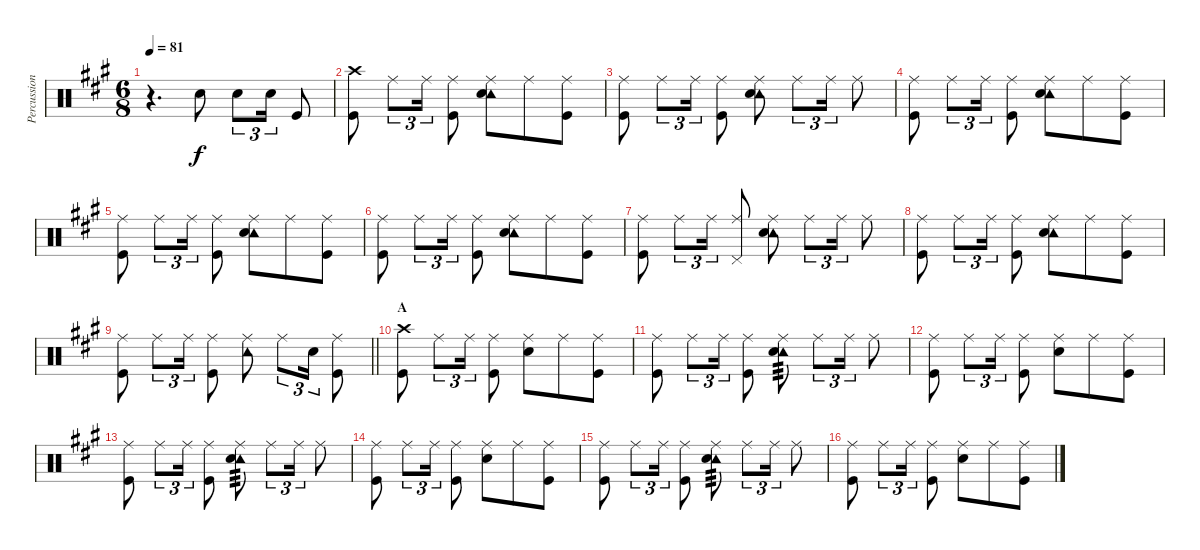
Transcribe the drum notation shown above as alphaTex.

\track ("Percussion" "Percussion") {instrument percussion}
\staff {score}
\articulation defaults
\ts (6 8)
\tempo 81
\clef neutral
\ks a
r.4{d dy f} "Snare (hit) 2".8 "Snare (hit) 2".8{tu (3 2)} "Snare (hit) 2".16{tu (3 2)} "Kick (hit)".8 |
("Crash high (hit)" "Kick (hit)").8 "Ride (middle)".8{tu (3 2)} "Ride (middle)".16{tu (3 2)} ("Ride (middle)" "Kick (hit)").8 ("Ride (middle)" "Tambourine (hit)" "Snare (hit) 2").8 "Ride (middle)".8 ("Ride (middle)" "Kick (hit)").8 |
("Ride (middle)" "Kick (hit)").8 "Ride (middle)".8{tu (3 2)} "Ride (middle)".16{tu (3 2)} ("Ride (middle)" "Kick (hit)").8 ("Ride (middle)" "Tambourine (hit)" "Snare (hit) 2").8 "Ride (middle)".8{tu (3 2)} "Ride (middle)".16{tu (3 2)} "Ride (middle)".8 |
("Ride (middle)" "Kick (hit)").8 "Ride (middle)".8{tu (3 2)} "Ride (middle)".16{tu (3 2)} ("Ride (middle)" "Kick (hit)").8 ("Ride (middle)" "Tambourine (hit)" "Snare (hit) 2").8 "Ride (middle)".8 ("Ride (middle)" "Kick (hit)").8 |
("Ride (middle)" "Kick (hit)").8 "Ride (middle)".8{tu (3 2)} "Ride (middle)".16{tu (3 2)} ("Ride (middle)" "Kick (hit)").8 ("Ride (middle)" "Tambourine (hit)" "Snare (hit) 2").8 "Ride (middle)".8 ("Ride (middle)" "Kick (hit)").8 |
("Ride (middle)" "Kick (hit)").8 "Ride (middle)".8{tu (3 2)} "Ride (middle)".16{tu (3 2)} ("Ride (middle)" "Kick (hit)").8 ("Ride (middle)" "Tambourine (hit)" "Snare (hit) 2").8 "Ride (middle)".8 ("Ride (middle)" "Kick (hit)").8 |
("Ride (middle)" "Kick (hit)").8 "Ride (middle)".8{tu (3 2)} "Ride (middle)".16{tu (3 2)} ("Ride (middle)" "Pedal Hi-Hat (hit)").8 ("Ride (middle)" "Tambourine (hit)" "Snare (hit) 2").8 "Ride (middle)".8{tu (3 2)} "Ride (middle)".16{tu (3 2)} "Ride (middle)".8 |
("Ride (middle)" "Kick (hit)").8 "Ride (middle)".8{tu (3 2)} "Ride (middle)".16{tu (3 2)} ("Ride (middle)" "Kick (hit)").8 ("Ride (middle)" "Tambourine (hit)" "Snare (hit) 2").8 "Ride (middle)".8 ("Ride (middle)" "Kick (hit)").8 |
\barLineRight lightlight
("Ride (middle)" "Kick (hit)").8 "Ride (middle)".8{tu (3 2)} "Ride (middle)".16{tu (3 2)} ("Ride (middle)" "Kick (hit)").8 ("Ride (middle)" "Tambourine (hit)").8 "Ride (middle)".8{tu (3 2)} "Snare (hit) 2".16{tu (3 2)} ("Ride (middle)" "Kick (hit)").8 |
\section ("" "A")
("Crash high (hit)" "Kick (hit)").8 "Ride (middle)".8{tu (3 2)} "Ride (middle)".16{tu (3 2)} ("Ride (middle)" "Kick (hit)").8 ("Ride (middle)" "Snare (hit) 2").8 "Ride (middle)".8 ("Ride (middle)" "Kick (hit)").8 |
("Ride (middle)" "Kick (hit)").8 "Ride (middle)".8{tu (3 2)} "Ride (middle)".16{tu (3 2)} ("Ride (middle)" "Kick (hit)").8 ("Ride (middle)" "Tambourine (hit)" "Snare (hit) 2").8{tp 3} "Ride (middle)".8{tu (3 2)} "Ride (middle)".16{tu (3 2)} "Ride (middle)".8 |
("Ride (middle)" "Kick (hit)").8 "Ride (middle)".8{tu (3 2)} "Ride (middle)".16{tu (3 2)} ("Ride (middle)" "Kick (hit)").8 ("Ride (middle)" "Snare (hit) 2").8 "Ride (middle)".8 ("Ride (middle)" "Kick (hit)").8 |
("Ride (middle)" "Kick (hit)").8 "Ride (middle)".8{tu (3 2)} "Ride (middle)".16{tu (3 2)} ("Ride (middle)" "Kick (hit)").8 ("Ride (middle)" "Tambourine (hit)" "Snare (hit) 2").8{tp 3} "Ride (middle)".8{tu (3 2)} "Ride (middle)".16{tu (3 2)} "Ride (middle)".8 |
("Ride (middle)" "Kick (hit)").8 "Ride (middle)".8{tu (3 2)} "Ride (middle)".16{tu (3 2)} ("Ride (middle)" "Kick (hit)").8 ("Ride (middle)" "Snare (hit) 2").8 "Ride (middle)".8 ("Ride (middle)" "Kick (hit)").8 |
("Ride (middle)" "Kick (hit)").8 "Ride (middle)".8{tu (3 2)} "Ride (middle)".16{tu (3 2)} ("Ride (middle)" "Kick (hit)").8 ("Ride (middle)" "Tambourine (hit)" "Snare (hit) 2").8{tp 3} "Ride (middle)".8{tu (3 2)} "Ride (middle)".16{tu (3 2)} "Ride (middle)".8 |
("Ride (middle)" "Kick (hit)").8 "Ride (middle)".8{tu (3 2)} "Ride (middle)".16{tu (3 2)} ("Ride (middle)" "Kick (hit)").8 ("Ride (middle)" "Snare (hit) 2").8 "Ride (middle)".8 ("Ride (middle)" "Kick (hit)").8
